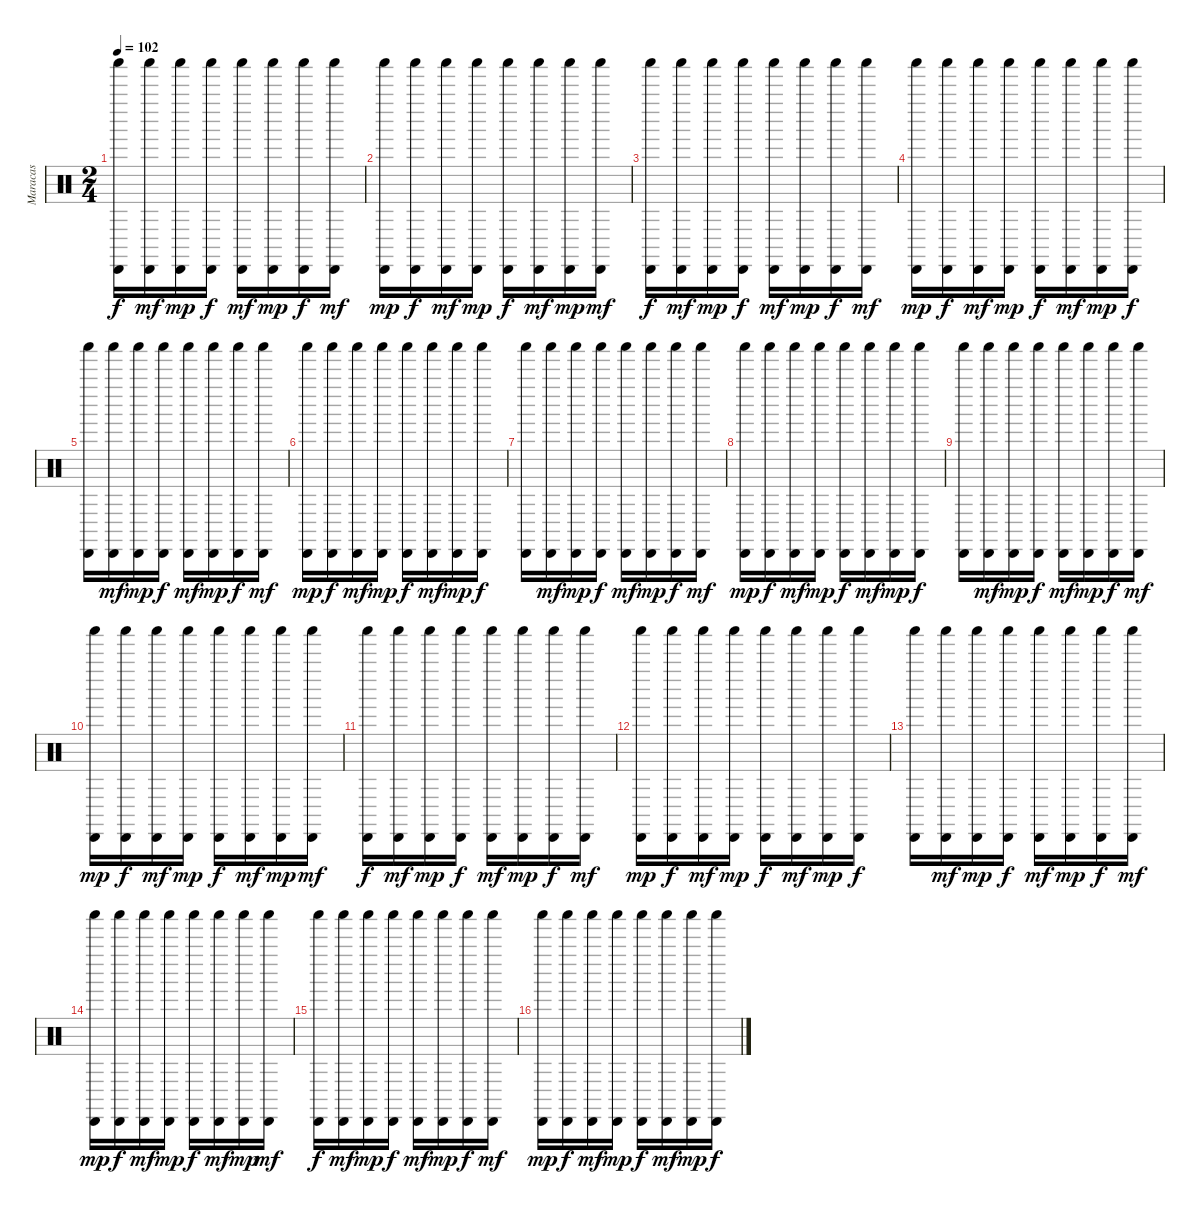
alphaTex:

\track ("Maracas" "Maracas") {instrument percussion}
\staff {score}
\articulation defaults
\ts (2 4)
\tempo 102
\clef neutral
\ks c
("Cabasa (hit)" "Shaker (hit)").16{dy f} ("Cabasa (hit)" "Shaker (hit)").16{dy mf} ("Cabasa (hit)" "Shaker (hit)").16{dy mp} ("Cabasa (hit)" "Shaker (hit)").16{dy f} ("Cabasa (hit)" "Shaker (hit)").16{dy mf} ("Cabasa (hit)" "Shaker (hit)").16{dy mp} ("Cabasa (hit)" "Shaker (hit)").16{dy f} ("Cabasa (hit)" "Shaker (hit)").16{dy mf} |
("Cabasa (hit)" "Shaker (hit)").16{dy mp} ("Cabasa (hit)" "Shaker (hit)").16{dy f} ("Cabasa (hit)" "Shaker (hit)").16{dy mf} ("Cabasa (hit)" "Shaker (hit)").16{dy mp} ("Cabasa (hit)" "Shaker (hit)").16{dy f} ("Cabasa (hit)" "Shaker (hit)").16{dy mf} ("Cabasa (hit)" "Shaker (hit)").16{dy mp} ("Cabasa (hit)" "Shaker (hit)").16{dy mf} |
("Shaker (hit)" "Cabasa (hit)").16{dy f} ("Shaker (hit)" "Cabasa (hit)").16{dy mf} ("Shaker (hit)" "Cabasa (hit)").16{dy mp} ("Shaker (hit)" "Cabasa (hit)").16{dy f} ("Shaker (hit)" "Cabasa (hit)").16{dy mf} ("Shaker (hit)" "Cabasa (hit)").16{dy mp} ("Shaker (hit)" "Cabasa (hit)").16{dy f} ("Shaker (hit)" "Cabasa (hit)").16{dy mf} |
("Shaker (hit)" "Cabasa (hit)").16{dy mp} ("Shaker (hit)" "Cabasa (hit)").16{dy f} ("Shaker (hit)" "Cabasa (hit)").16{dy mf} ("Shaker (hit)" "Cabasa (hit)").16{dy mp} ("Shaker (hit)" "Cabasa (hit)").16{dy f} ("Shaker (hit)" "Cabasa (hit)").16{dy mf} ("Shaker (hit)" "Cabasa (hit)").16{dy mp} ("Shaker (hit)" "Cabasa (hit)").16{dy f} |
("Cabasa (hit)" "Shaker (hit)").16 ("Cabasa (hit)" "Shaker (hit)").16{dy mf} ("Cabasa (hit)" "Shaker (hit)").16{dy mp} ("Cabasa (hit)" "Shaker (hit)").16{dy f} ("Cabasa (hit)" "Shaker (hit)").16{dy mf} ("Cabasa (hit)" "Shaker (hit)").16{dy mp} ("Cabasa (hit)" "Shaker (hit)").16{dy f} ("Cabasa (hit)" "Shaker (hit)").16{dy mf} |
("Cabasa (hit)" "Shaker (hit)").16{dy mp} ("Cabasa (hit)" "Shaker (hit)").16{dy f} ("Cabasa (hit)" "Shaker (hit)").16{dy mf} ("Cabasa (hit)" "Shaker (hit)").16{dy mp} ("Cabasa (hit)" "Shaker (hit)").16{dy f} ("Cabasa (hit)" "Shaker (hit)").16{dy mf} ("Cabasa (hit)" "Shaker (hit)").16{dy mp} ("Cabasa (hit)" "Shaker (hit)").16{dy f} |
("Cabasa (hit)" "Shaker (hit)").16 ("Cabasa (hit)" "Shaker (hit)").16{dy mf} ("Cabasa (hit)" "Shaker (hit)").16{dy mp} ("Cabasa (hit)" "Shaker (hit)").16{dy f} ("Cabasa (hit)" "Shaker (hit)").16{dy mf} ("Cabasa (hit)" "Shaker (hit)").16{dy mp} ("Cabasa (hit)" "Shaker (hit)").16{dy f} ("Cabasa (hit)" "Shaker (hit)").16{dy mf} |
("Cabasa (hit)" "Shaker (hit)").16{dy mp} ("Cabasa (hit)" "Shaker (hit)").16{dy f} ("Cabasa (hit)" "Shaker (hit)").16{dy mf} ("Cabasa (hit)" "Shaker (hit)").16{dy mp} ("Cabasa (hit)" "Shaker (hit)").16{dy f} ("Cabasa (hit)" "Shaker (hit)").16{dy mf} ("Cabasa (hit)" "Shaker (hit)").16{dy mp} ("Cabasa (hit)" "Shaker (hit)").16{dy f} |
("Cabasa (hit)" "Shaker (hit)").16 ("Cabasa (hit)" "Shaker (hit)").16{dy mf} ("Cabasa (hit)" "Shaker (hit)").16{dy mp} ("Cabasa (hit)" "Shaker (hit)").16{dy f} ("Cabasa (hit)" "Shaker (hit)").16{dy mf} ("Cabasa (hit)" "Shaker (hit)").16{dy mp} ("Cabasa (hit)" "Shaker (hit)").16{dy f} ("Cabasa (hit)" "Shaker (hit)").16{dy mf} |
("Cabasa (hit)" "Shaker (hit)").16{dy mp} ("Cabasa (hit)" "Shaker (hit)").16{dy f} ("Cabasa (hit)" "Shaker (hit)").16{dy mf} ("Cabasa (hit)" "Shaker (hit)").16{dy mp} ("Cabasa (hit)" "Shaker (hit)").16{dy f} ("Cabasa (hit)" "Shaker (hit)").16{dy mf} ("Cabasa (hit)" "Shaker (hit)").16{dy mp} ("Cabasa (hit)" "Shaker (hit)").16{dy mf} |
("Cabasa (hit)" "Shaker (hit)").16{dy f} ("Cabasa (hit)" "Shaker (hit)").16{dy mf} ("Cabasa (hit)" "Shaker (hit)").16{dy mp} ("Cabasa (hit)" "Shaker (hit)").16{dy f} ("Cabasa (hit)" "Shaker (hit)").16{dy mf} ("Cabasa (hit)" "Shaker (hit)").16{dy mp} ("Cabasa (hit)" "Shaker (hit)").16{dy f} ("Cabasa (hit)" "Shaker (hit)").16{dy mf} |
("Cabasa (hit)" "Shaker (hit)").16{dy mp} ("Cabasa (hit)" "Shaker (hit)").16{dy f} ("Cabasa (hit)" "Shaker (hit)").16{dy mf} ("Cabasa (hit)" "Shaker (hit)").16{dy mp} ("Cabasa (hit)" "Shaker (hit)").16{dy f} ("Cabasa (hit)" "Shaker (hit)").16{dy mf} ("Cabasa (hit)" "Shaker (hit)").16{dy mp} ("Cabasa (hit)" "Shaker (hit)").16{dy f} |
("Cabasa (hit)" "Shaker (hit)").16 ("Cabasa (hit)" "Shaker (hit)").16{dy mf} ("Cabasa (hit)" "Shaker (hit)").16{dy mp} ("Cabasa (hit)" "Shaker (hit)").16{dy f} ("Cabasa (hit)" "Shaker (hit)").16{dy mf} ("Cabasa (hit)" "Shaker (hit)").16{dy mp} ("Cabasa (hit)" "Shaker (hit)").16{dy f} ("Cabasa (hit)" "Shaker (hit)").16{dy mf} |
("Cabasa (hit)" "Shaker (hit)").16{dy mp} ("Cabasa (hit)" "Shaker (hit)").16{dy f} ("Cabasa (hit)" "Shaker (hit)").16{dy mf} ("Cabasa (hit)" "Shaker (hit)").16{dy mp} ("Cabasa (hit)" "Shaker (hit)").16{dy f} ("Cabasa (hit)" "Shaker (hit)").16{dy mf} ("Cabasa (hit)" "Shaker (hit)").16{dy mp} ("Cabasa (hit)" "Shaker (hit)").16{dy mf} |
("Cabasa (hit)" "Shaker (hit)").16{dy f} ("Cabasa (hit)" "Shaker (hit)").16{dy mf} ("Cabasa (hit)" "Shaker (hit)").16{dy mp} ("Cabasa (hit)" "Shaker (hit)").16{dy f} ("Cabasa (hit)" "Shaker (hit)").16{dy mf} ("Cabasa (hit)" "Shaker (hit)").16{dy mp} ("Cabasa (hit)" "Shaker (hit)").16{dy f} ("Cabasa (hit)" "Shaker (hit)").16{dy mf} |
("Cabasa (hit)" "Shaker (hit)").16{dy mp} ("Cabasa (hit)" "Shaker (hit)").16{dy f} ("Cabasa (hit)" "Shaker (hit)").16{dy mf} ("Cabasa (hit)" "Shaker (hit)").16{dy mp} ("Cabasa (hit)" "Shaker (hit)").16{dy f} ("Cabasa (hit)" "Shaker (hit)").16{dy mf} ("Cabasa (hit)" "Shaker (hit)").16{dy mp} ("Cabasa (hit)" "Shaker (hit)").16{dy f}
